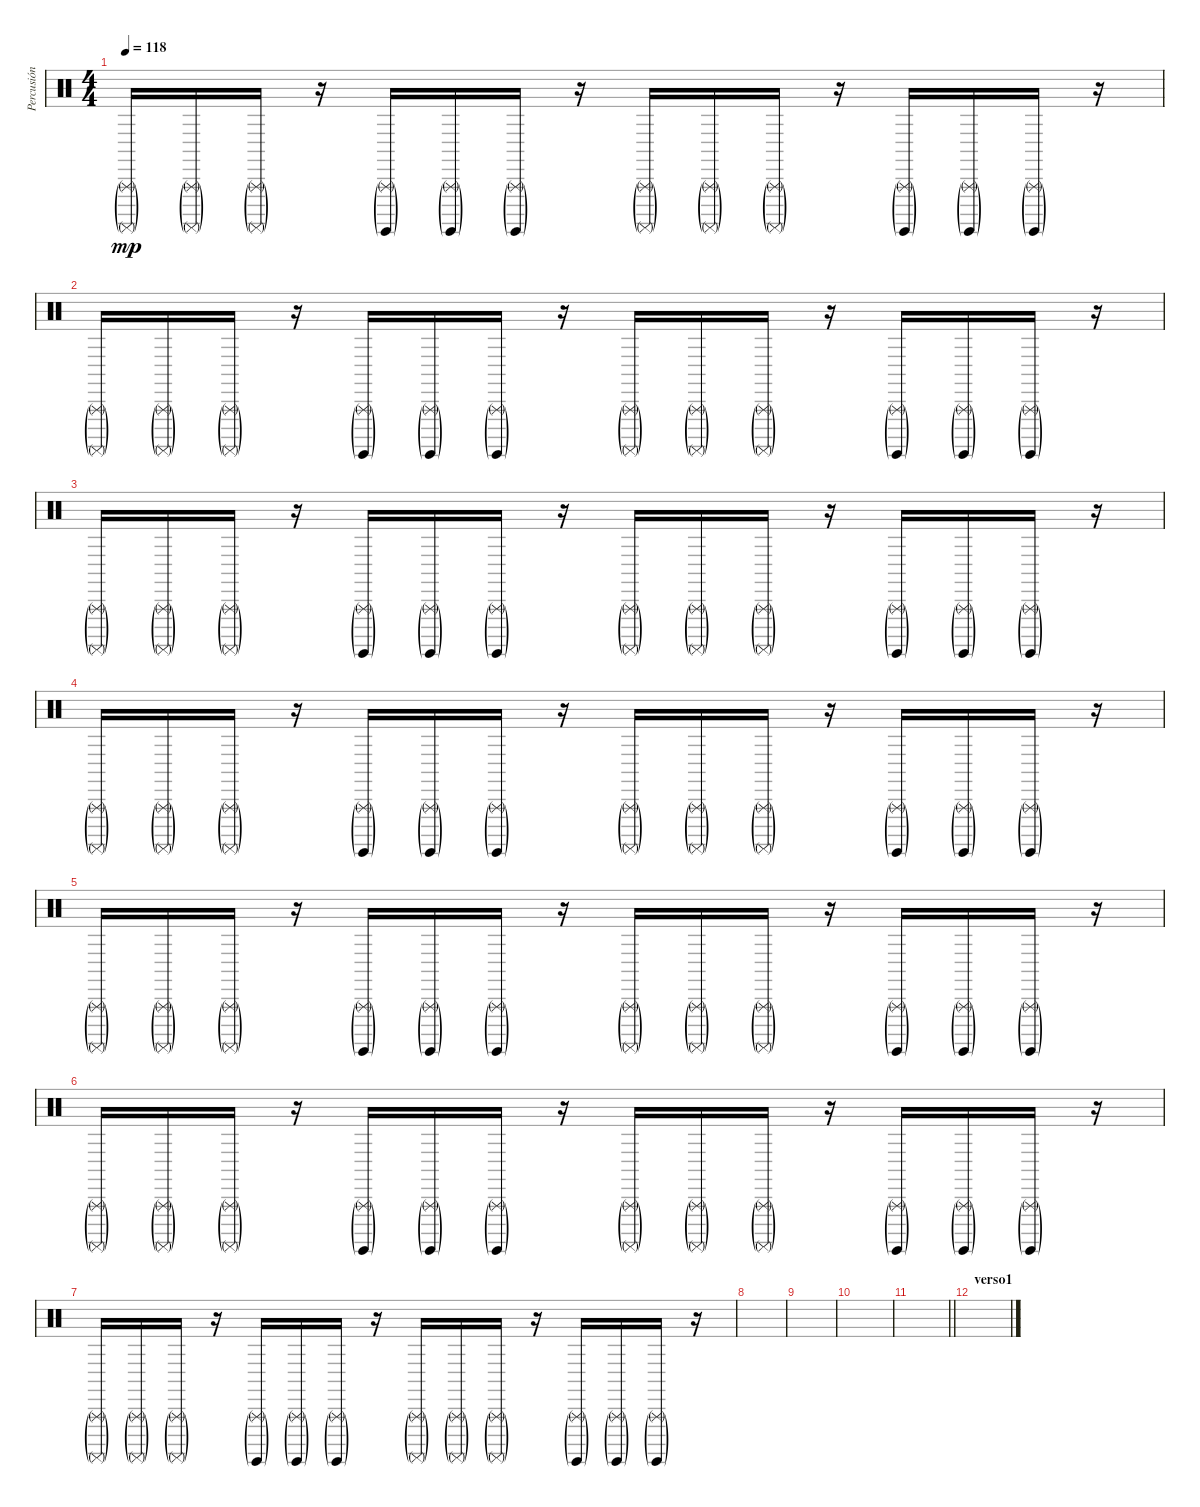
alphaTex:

\track ("Percusión" "Percusión") {instrument percussion}
\staff {score}
\articulation defaults
\ts (4 4)
\tempo 118
\clef neutral
\ks c
("Triangle (rnute)"{g} "Surdo (mute)"{g}).16{dy mp} ("Triangle (rnute)"{g} "Surdo (mute)"{g}).16 ("Triangle (rnute)"{g} "Surdo (mute)"{g}).16 r.16 ("Triangle (rnute)"{g} "Surdo (hit)"{g}).16 ("Triangle (rnute)"{g} "Surdo (hit)"{g}).16 ("Triangle (rnute)"{g} "Surdo (hit)"{g}).16 r.16 ("Triangle (rnute)"{g} "Surdo (mute)"{g}).16 ("Triangle (rnute)"{g} "Surdo (mute)"{g}).16 ("Triangle (rnute)"{g} "Surdo (mute)"{g}).16 r.16 ("Triangle (rnute)"{g} "Surdo (hit)"{g}).16 ("Triangle (rnute)"{g} "Surdo (hit)"{g}).16 ("Triangle (rnute)"{g} "Surdo (hit)"{g}).16 r.16 |
("Triangle (rnute)"{g} "Surdo (mute)"{g}).16 ("Triangle (rnute)"{g} "Surdo (mute)"{g}).16 ("Triangle (rnute)"{g} "Surdo (mute)"{g}).16 r.16 ("Triangle (rnute)"{g} "Surdo (hit)"{g}).16 ("Triangle (rnute)"{g} "Surdo (hit)"{g}).16 ("Triangle (rnute)"{g} "Surdo (hit)"{g}).16 r.16 ("Triangle (rnute)"{g} "Surdo (mute)"{g}).16 ("Triangle (rnute)"{g} "Surdo (mute)"{g}).16 ("Triangle (rnute)"{g} "Surdo (mute)"{g}).16 r.16 ("Triangle (rnute)"{g} "Surdo (hit)"{g}).16 ("Triangle (rnute)"{g} "Surdo (hit)"{g}).16 ("Triangle (rnute)"{g} "Surdo (hit)"{g}).16 r.16 |
("Triangle (rnute)"{g} "Surdo (mute)"{g}).16 ("Triangle (rnute)"{g} "Surdo (mute)"{g}).16 ("Triangle (rnute)"{g} "Surdo (mute)"{g}).16 r.16 ("Triangle (rnute)"{g} "Surdo (hit)"{g}).16 ("Triangle (rnute)"{g} "Surdo (hit)"{g}).16 ("Triangle (rnute)"{g} "Surdo (hit)"{g}).16 r.16 ("Triangle (rnute)"{g} "Surdo (mute)"{g}).16 ("Triangle (rnute)"{g} "Surdo (mute)"{g}).16 ("Triangle (rnute)"{g} "Surdo (mute)"{g}).16 r.16 ("Triangle (rnute)"{g} "Surdo (hit)"{g}).16 ("Triangle (rnute)"{g} "Surdo (hit)"{g}).16 ("Triangle (rnute)"{g} "Surdo (hit)"{g}).16 r.16 |
("Triangle (rnute)"{g} "Surdo (mute)"{g}).16 ("Triangle (rnute)"{g} "Surdo (mute)"{g}).16 ("Triangle (rnute)"{g} "Surdo (mute)"{g}).16 r.16 ("Triangle (rnute)"{g} "Surdo (hit)"{g}).16 ("Triangle (rnute)"{g} "Surdo (hit)"{g}).16 ("Triangle (rnute)"{g} "Surdo (hit)"{g}).16 r.16 ("Triangle (rnute)"{g} "Surdo (mute)"{g}).16 ("Triangle (rnute)"{g} "Surdo (mute)"{g}).16 ("Triangle (rnute)"{g} "Surdo (mute)"{g}).16 r.16 ("Triangle (rnute)"{g} "Surdo (hit)"{g}).16 ("Triangle (rnute)"{g} "Surdo (hit)"{g}).16 ("Triangle (rnute)"{g} "Surdo (hit)"{g}).16 r.16 |
("Triangle (rnute)"{g} "Surdo (mute)"{g}).16 ("Triangle (rnute)"{g} "Surdo (mute)"{g}).16 ("Triangle (rnute)"{g} "Surdo (mute)"{g}).16 r.16 ("Triangle (rnute)"{g} "Surdo (hit)"{g}).16 ("Triangle (rnute)"{g} "Surdo (hit)"{g}).16 ("Triangle (rnute)"{g} "Surdo (hit)"{g}).16 r.16 ("Triangle (rnute)"{g} "Surdo (mute)"{g}).16 ("Triangle (rnute)"{g} "Surdo (mute)"{g}).16 ("Triangle (rnute)"{g} "Surdo (mute)"{g}).16 r.16 ("Triangle (rnute)"{g} "Surdo (hit)"{g}).16 ("Triangle (rnute)"{g} "Surdo (hit)"{g}).16 ("Triangle (rnute)"{g} "Surdo (hit)"{g}).16 r.16 |
("Triangle (rnute)"{g} "Surdo (mute)"{g}).16 ("Triangle (rnute)"{g} "Surdo (mute)"{g}).16 ("Triangle (rnute)"{g} "Surdo (mute)"{g}).16 r.16 ("Triangle (rnute)"{g} "Surdo (hit)"{g}).16 ("Triangle (rnute)"{g} "Surdo (hit)"{g}).16 ("Triangle (rnute)"{g} "Surdo (hit)"{g}).16 r.16 ("Triangle (rnute)"{g} "Surdo (mute)"{g}).16 ("Triangle (rnute)"{g} "Surdo (mute)"{g}).16 ("Triangle (rnute)"{g} "Surdo (mute)"{g}).16 r.16 ("Triangle (rnute)"{g} "Surdo (hit)"{g}).16 ("Triangle (rnute)"{g} "Surdo (hit)"{g}).16 ("Triangle (rnute)"{g} "Surdo (hit)"{g}).16 r.16 |
("Triangle (rnute)"{g} "Surdo (mute)"{g}).16 ("Triangle (rnute)"{g} "Surdo (mute)"{g}).16 ("Triangle (rnute)"{g} "Surdo (mute)"{g}).16 r.16 ("Triangle (rnute)"{g} "Surdo (hit)"{g}).16 ("Triangle (rnute)"{g} "Surdo (hit)"{g}).16 ("Triangle (rnute)"{g} "Surdo (hit)"{g}).16 r.16 ("Triangle (rnute)"{g} "Surdo (mute)"{g}).16 ("Triangle (rnute)"{g} "Surdo (mute)"{g}).16 ("Triangle (rnute)"{g} "Surdo (mute)"{g}).16 r.16 ("Triangle (rnute)"{g} "Surdo (hit)"{g}).16 ("Triangle (rnute)"{g} "Surdo (hit)"{g}).16 ("Triangle (rnute)"{g} "Surdo (hit)"{g}).16 r.16 |
|
|
|
\barLineRight lightlight
|
\section ("" "verso1")
